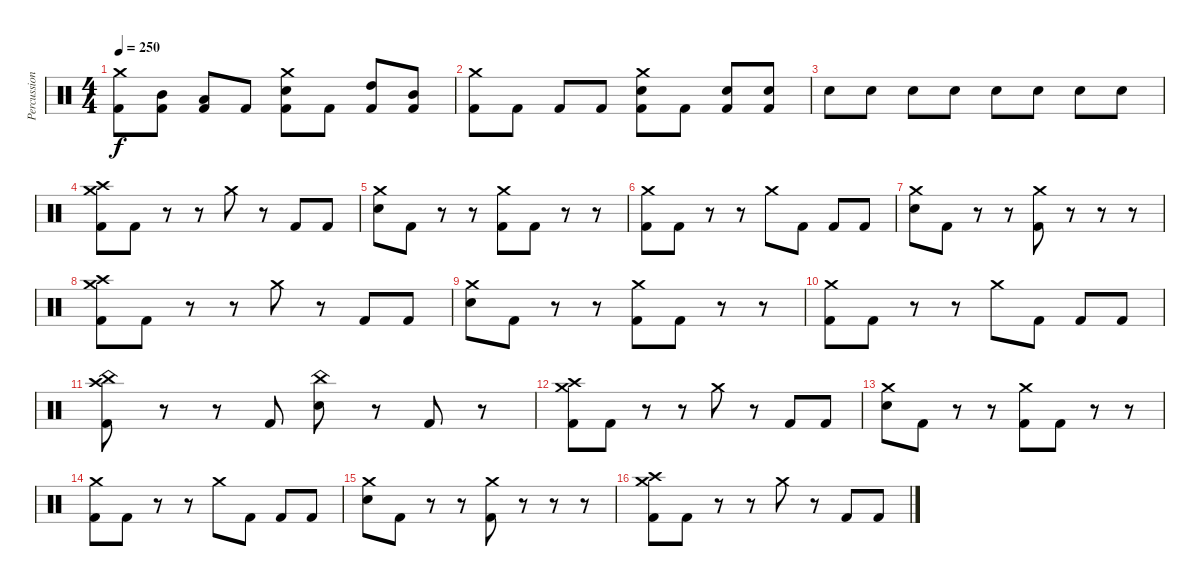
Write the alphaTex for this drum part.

\track ("Percussion" "Percussion") {instrument percussion}
\staff {score}
\articulation defaults
\ts (4 4)
\tempo 250
\clef neutral
\ks c
("Crash medium (hit)" "Kick (hit) 2").8{dy f} ("Mid Tom (hit)" "Kick (hit) 2").8 ("Low Tom (hit)" "Kick (hit) 2").8 "Kick (hit) 2".8 ("Crash medium (hit)" "Electric Snare (hit)" "Kick (hit) 2").8 "Kick (hit) 2".8 ("High Tom (hit)" "Kick (hit) 2").8 ("Mid Tom (hit)" "Kick (hit) 2").8 |
("Crash medium (hit)" "Kick (hit) 2").8 "Kick (hit) 2".8 "Kick (hit) 2".8 "Kick (hit) 2".8 ("Crash medium (hit)" "Electric Snare (hit)" "Kick (hit) 2").8 "Kick (hit) 2".8 ("Electric Snare (hit)" "Kick (hit) 2").8 ("Electric Snare (hit)" "Kick (hit) 2").8 |
"Electric Snare (hit)".8 "Electric Snare (hit)".8 "Electric Snare (hit)".8 "Electric Snare (hit)".8 "Electric Snare (hit)".8 "Electric Snare (hit)".8 "Electric Snare (hit)".8 "Electric Snare (hit)".8 |
("Crash high (hit)" "Crash medium (hit)" "Kick (hit) 2").8 "Kick (hit) 2".8 r.8 r.8 "Crash medium (hit)".8 r.8 "Kick (hit) 2".8 "Kick (hit) 2".8 |
("Crash medium (hit)" "Electric Snare (hit)").8 "Kick (hit) 2".8 r.8 r.8 ("Crash medium (hit)" "Kick (hit) 2").8 "Kick (hit) 2".8 r.8 r.8 |
("Crash medium (hit)" "Kick (hit) 2").8 "Kick (hit) 2".8 r.8 r.8 "Crash medium (hit)".8 "Kick (hit) 2".8 "Kick (hit) 2".8 "Kick (hit) 2".8 |
("Crash medium (hit)" "Electric Snare (hit)").8 "Kick (hit) 2".8 r.8 r.8 ("Crash medium (hit)" "Kick (hit) 2").8 r.8 r.8 r.8 |
("Crash high (hit)" "Crash medium (hit)" "Kick (hit) 2").8 "Kick (hit) 2".8 r.8 r.8 "Crash medium (hit)".8 r.8 "Kick (hit) 2".8 "Kick (hit) 2".8 |
("Crash medium (hit)" "Electric Snare (hit)").8 "Kick (hit) 2".8 r.8 r.8 ("Crash medium (hit)" "Kick (hit) 2").8 "Kick (hit) 2".8 r.8 r.8 |
("Crash medium (hit)" "Kick (hit) 2").8 "Kick (hit) 2".8 r.8 r.8 "Crash medium (hit)".8 "Kick (hit) 2".8 "Kick (hit) 2".8 "Kick (hit) 2".8 |
("Crash high (hit)" "China (hit)" "Kick (hit) 2").8 r.8 r.8 "Kick (hit) 2".8 ("China (hit)" "Electric Snare (hit)").8 r.8 "Kick (hit) 2".8 r.8 |
("Crash high (hit)" "Crash medium (hit)" "Kick (hit) 2").8 "Kick (hit) 2".8 r.8 r.8 "Crash medium (hit)".8 r.8 "Kick (hit) 2".8 "Kick (hit) 2".8 |
("Crash medium (hit)" "Electric Snare (hit)").8 "Kick (hit) 2".8 r.8 r.8 ("Crash medium (hit)" "Kick (hit) 2").8 "Kick (hit) 2".8 r.8 r.8 |
("Crash medium (hit)" "Kick (hit) 2").8 "Kick (hit) 2".8 r.8 r.8 "Crash medium (hit)".8 "Kick (hit) 2".8 "Kick (hit) 2".8 "Kick (hit) 2".8 |
("Crash medium (hit)" "Electric Snare (hit)").8 "Kick (hit) 2".8 r.8 r.8 ("Crash medium (hit)" "Kick (hit) 2").8 r.8 r.8 r.8 |
("Crash high (hit)" "Crash medium (hit)" "Kick (hit) 2").8 "Kick (hit) 2".8 r.8 r.8 "Crash medium (hit)".8 r.8 "Kick (hit) 2".8 "Kick (hit) 2".8
